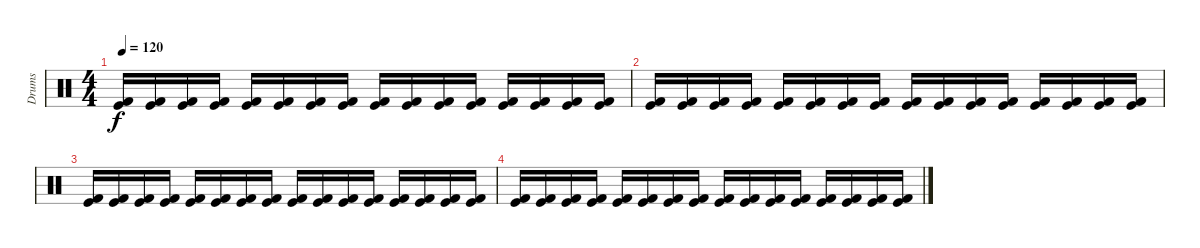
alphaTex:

\track ("Drums" "Drums") {instrument percussion}
\staff {score}
\articulation defaults
\ts (4 4)
\tempo 120
\clef neutral
\ks c
("Kick (hit) 2" "Kick (hit)").16{dy f} ("Kick (hit) 2" "Kick (hit)").16 ("Kick (hit) 2" "Kick (hit)").16 ("Kick (hit) 2" "Kick (hit)").16 ("Kick (hit) 2" "Kick (hit)").16 ("Kick (hit) 2" "Kick (hit)").16 ("Kick (hit) 2" "Kick (hit)").16 ("Kick (hit) 2" "Kick (hit)").16 ("Kick (hit) 2" "Kick (hit)").16 ("Kick (hit) 2" "Kick (hit)").16 ("Kick (hit) 2" "Kick (hit)").16 ("Kick (hit) 2" "Kick (hit)").16 ("Kick (hit) 2" "Kick (hit)").16 ("Kick (hit) 2" "Kick (hit)").16 ("Kick (hit) 2" "Kick (hit)").16 ("Kick (hit) 2" "Kick (hit)").16 |
("Kick (hit) 2" "Kick (hit)").16 ("Kick (hit) 2" "Kick (hit)").16 ("Kick (hit) 2" "Kick (hit)").16 ("Kick (hit) 2" "Kick (hit)").16 ("Kick (hit) 2" "Kick (hit)").16 ("Kick (hit) 2" "Kick (hit)").16 ("Kick (hit) 2" "Kick (hit)").16 ("Kick (hit) 2" "Kick (hit)").16 ("Kick (hit) 2" "Kick (hit)").16 ("Kick (hit) 2" "Kick (hit)").16 ("Kick (hit) 2" "Kick (hit)").16 ("Kick (hit) 2" "Kick (hit)").16 ("Kick (hit) 2" "Kick (hit)").16 ("Kick (hit) 2" "Kick (hit)").16 ("Kick (hit) 2" "Kick (hit)").16 ("Kick (hit) 2" "Kick (hit)").16 |
("Kick (hit) 2" "Kick (hit)").16 ("Kick (hit) 2" "Kick (hit)").16 ("Kick (hit) 2" "Kick (hit)").16 ("Kick (hit) 2" "Kick (hit)").16 ("Kick (hit) 2" "Kick (hit)").16 ("Kick (hit) 2" "Kick (hit)").16 ("Kick (hit) 2" "Kick (hit)").16 ("Kick (hit) 2" "Kick (hit)").16 ("Kick (hit) 2" "Kick (hit)").16 ("Kick (hit) 2" "Kick (hit)").16 ("Kick (hit) 2" "Kick (hit)").16 ("Kick (hit) 2" "Kick (hit)").16 ("Kick (hit) 2" "Kick (hit)").16 ("Kick (hit) 2" "Kick (hit)").16 ("Kick (hit) 2" "Kick (hit)").16 ("Kick (hit) 2" "Kick (hit)").16 |
("Kick (hit) 2" "Kick (hit)").16 ("Kick (hit) 2" "Kick (hit)").16 ("Kick (hit) 2" "Kick (hit)").16 ("Kick (hit) 2" "Kick (hit)").16 ("Kick (hit) 2" "Kick (hit)").16 ("Kick (hit) 2" "Kick (hit)").16 ("Kick (hit) 2" "Kick (hit)").16 ("Kick (hit) 2" "Kick (hit)").16 ("Kick (hit) 2" "Kick (hit)").16 ("Kick (hit) 2" "Kick (hit)").16 ("Kick (hit) 2" "Kick (hit)").16 ("Kick (hit) 2" "Kick (hit)").16 ("Kick (hit) 2" "Kick (hit)").16 ("Kick (hit) 2" "Kick (hit)").16 ("Kick (hit) 2" "Kick (hit)").16 ("Kick (hit) 2" "Kick (hit)").16
